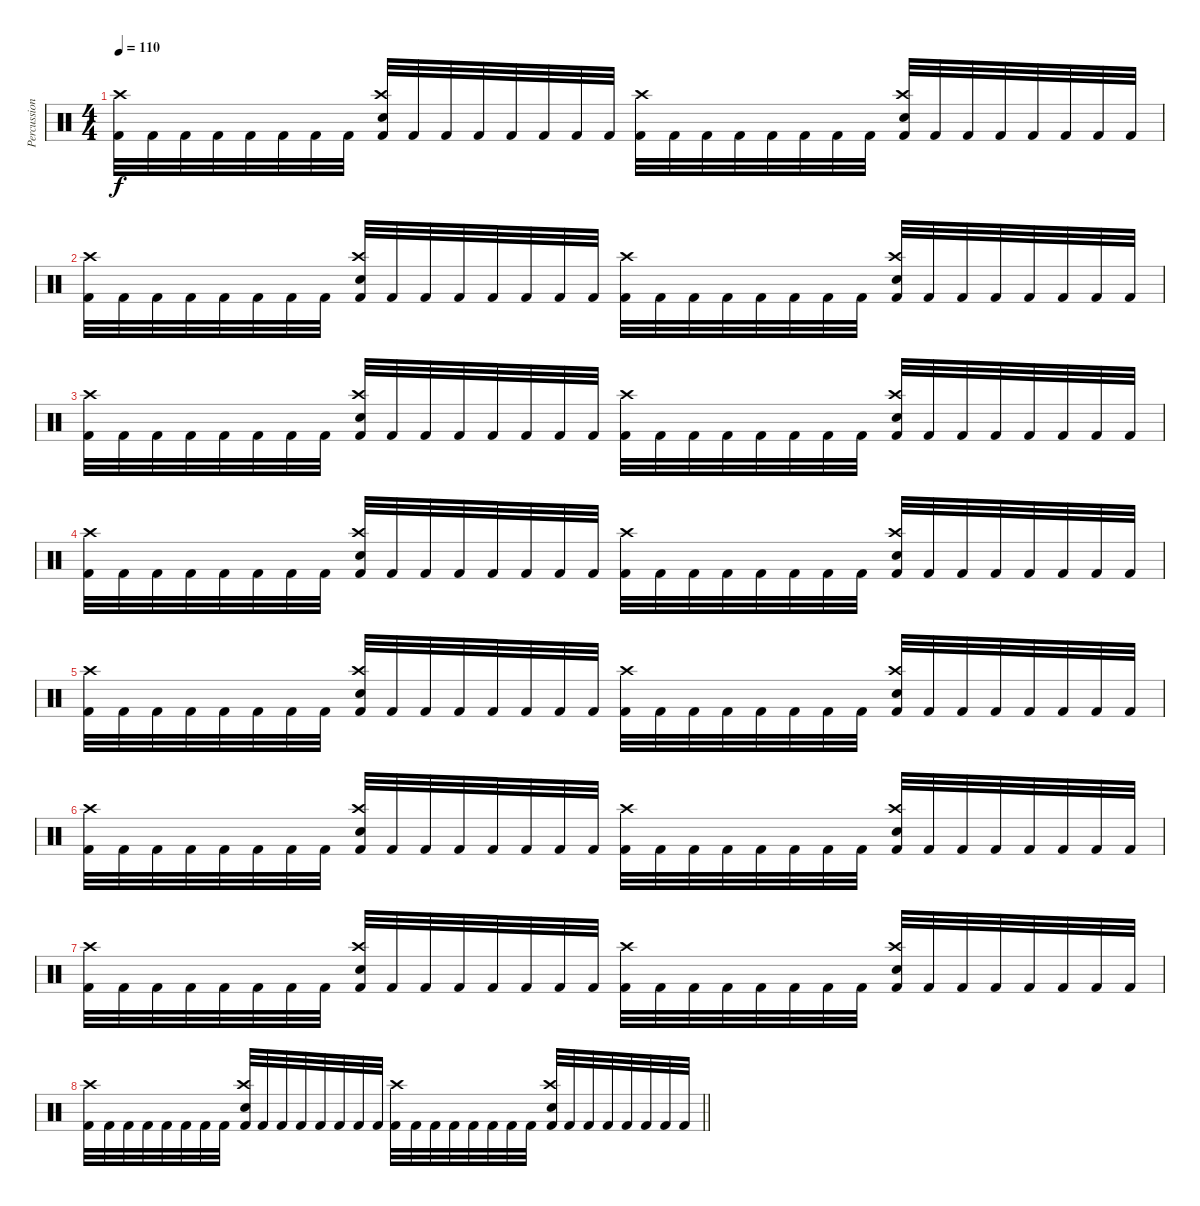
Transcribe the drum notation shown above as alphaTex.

\track ("Percussions" "Percussion") {instrument percussion}
\staff {score}
\articulation defaults
\ts (4 4)
\tempo 110
\clef neutral
\ks c
("Kick (hit) 2" "Crash high (hit)").32{dy f} "Kick (hit) 2".32 "Kick (hit) 2".32 "Kick (hit) 2".32 "Kick (hit) 2".32 "Kick (hit) 2".32 "Kick (hit) 2".32 "Kick (hit) 2".32 ("Kick (hit) 2" "Electric Snare (hit)" "Crash high (hit)").32 "Kick (hit) 2".32 "Kick (hit) 2".32 "Kick (hit) 2".32 "Kick (hit) 2".32 "Kick (hit) 2".32 "Kick (hit) 2".32 "Kick (hit) 2".32 ("Kick (hit) 2" "Crash high (hit)").32 "Kick (hit) 2".32 "Kick (hit) 2".32 "Kick (hit) 2".32 "Kick (hit) 2".32 "Kick (hit) 2".32 "Kick (hit) 2".32 "Kick (hit) 2".32 ("Kick (hit) 2" "Electric Snare (hit)" "Crash high (hit)").32 "Kick (hit) 2".32 "Kick (hit) 2".32 "Kick (hit) 2".32 "Kick (hit) 2".32 "Kick (hit) 2".32 "Kick (hit) 2".32 "Kick (hit) 2".32 |
("Kick (hit) 2" "Crash high (hit)").32 "Kick (hit) 2".32 "Kick (hit) 2".32 "Kick (hit) 2".32 "Kick (hit) 2".32 "Kick (hit) 2".32 "Kick (hit) 2".32 "Kick (hit) 2".32 ("Kick (hit) 2" "Electric Snare (hit)" "Crash high (hit)").32 "Kick (hit) 2".32 "Kick (hit) 2".32 "Kick (hit) 2".32 "Kick (hit) 2".32 "Kick (hit) 2".32 "Kick (hit) 2".32 "Kick (hit) 2".32 ("Kick (hit) 2" "Crash high (hit)").32 "Kick (hit) 2".32 "Kick (hit) 2".32 "Kick (hit) 2".32 "Kick (hit) 2".32 "Kick (hit) 2".32 "Kick (hit) 2".32 "Kick (hit) 2".32 ("Kick (hit) 2" "Electric Snare (hit)" "Crash high (hit)").32 "Kick (hit) 2".32 "Kick (hit) 2".32 "Kick (hit) 2".32 "Kick (hit) 2".32 "Kick (hit) 2".32 "Kick (hit) 2".32 "Kick (hit) 2".32 |
("Kick (hit) 2" "Crash high (hit)").32 "Kick (hit) 2".32 "Kick (hit) 2".32 "Kick (hit) 2".32 "Kick (hit) 2".32 "Kick (hit) 2".32 "Kick (hit) 2".32 "Kick (hit) 2".32 ("Kick (hit) 2" "Electric Snare (hit)" "Crash high (hit)").32 "Kick (hit) 2".32 "Kick (hit) 2".32 "Kick (hit) 2".32 "Kick (hit) 2".32 "Kick (hit) 2".32 "Kick (hit) 2".32 "Kick (hit) 2".32 ("Kick (hit) 2" "Crash high (hit)").32 "Kick (hit) 2".32 "Kick (hit) 2".32 "Kick (hit) 2".32 "Kick (hit) 2".32 "Kick (hit) 2".32 "Kick (hit) 2".32 "Kick (hit) 2".32 ("Kick (hit) 2" "Electric Snare (hit)" "Crash high (hit)").32 "Kick (hit) 2".32 "Kick (hit) 2".32 "Kick (hit) 2".32 "Kick (hit) 2".32 "Kick (hit) 2".32 "Kick (hit) 2".32 "Kick (hit) 2".32 |
("Kick (hit) 2" "Crash high (hit)").32 "Kick (hit) 2".32 "Kick (hit) 2".32 "Kick (hit) 2".32 "Kick (hit) 2".32 "Kick (hit) 2".32 "Kick (hit) 2".32 "Kick (hit) 2".32 ("Kick (hit) 2" "Electric Snare (hit)" "Crash high (hit)").32 "Kick (hit) 2".32 "Kick (hit) 2".32 "Kick (hit) 2".32 "Kick (hit) 2".32 "Kick (hit) 2".32 "Kick (hit) 2".32 "Kick (hit) 2".32 ("Kick (hit) 2" "Crash high (hit)").32 "Kick (hit) 2".32 "Kick (hit) 2".32 "Kick (hit) 2".32 "Kick (hit) 2".32 "Kick (hit) 2".32 "Kick (hit) 2".32 "Kick (hit) 2".32 ("Kick (hit) 2" "Electric Snare (hit)" "Crash high (hit)").32 "Kick (hit) 2".32 "Kick (hit) 2".32 "Kick (hit) 2".32 "Kick (hit) 2".32 "Kick (hit) 2".32 "Kick (hit) 2".32 "Kick (hit) 2".32 |
("Kick (hit) 2" "Crash high (hit)").32 "Kick (hit) 2".32 "Kick (hit) 2".32 "Kick (hit) 2".32 "Kick (hit) 2".32 "Kick (hit) 2".32 "Kick (hit) 2".32 "Kick (hit) 2".32 ("Kick (hit) 2" "Electric Snare (hit)" "Crash high (hit)").32 "Kick (hit) 2".32 "Kick (hit) 2".32 "Kick (hit) 2".32 "Kick (hit) 2".32 "Kick (hit) 2".32 "Kick (hit) 2".32 "Kick (hit) 2".32 ("Kick (hit) 2" "Crash high (hit)").32 "Kick (hit) 2".32 "Kick (hit) 2".32 "Kick (hit) 2".32 "Kick (hit) 2".32 "Kick (hit) 2".32 "Kick (hit) 2".32 "Kick (hit) 2".32 ("Kick (hit) 2" "Electric Snare (hit)" "Crash high (hit)").32 "Kick (hit) 2".32 "Kick (hit) 2".32 "Kick (hit) 2".32 "Kick (hit) 2".32 "Kick (hit) 2".32 "Kick (hit) 2".32 "Kick (hit) 2".32 |
("Kick (hit) 2" "Crash high (hit)").32 "Kick (hit) 2".32 "Kick (hit) 2".32 "Kick (hit) 2".32 "Kick (hit) 2".32 "Kick (hit) 2".32 "Kick (hit) 2".32 "Kick (hit) 2".32 ("Kick (hit) 2" "Electric Snare (hit)" "Crash high (hit)").32 "Kick (hit) 2".32 "Kick (hit) 2".32 "Kick (hit) 2".32 "Kick (hit) 2".32 "Kick (hit) 2".32 "Kick (hit) 2".32 "Kick (hit) 2".32 ("Kick (hit) 2" "Crash high (hit)").32 "Kick (hit) 2".32 "Kick (hit) 2".32 "Kick (hit) 2".32 "Kick (hit) 2".32 "Kick (hit) 2".32 "Kick (hit) 2".32 "Kick (hit) 2".32 ("Kick (hit) 2" "Electric Snare (hit)" "Crash high (hit)").32 "Kick (hit) 2".32 "Kick (hit) 2".32 "Kick (hit) 2".32 "Kick (hit) 2".32 "Kick (hit) 2".32 "Kick (hit) 2".32 "Kick (hit) 2".32 |
("Kick (hit) 2" "Crash high (hit)").32 "Kick (hit) 2".32 "Kick (hit) 2".32 "Kick (hit) 2".32 "Kick (hit) 2".32 "Kick (hit) 2".32 "Kick (hit) 2".32 "Kick (hit) 2".32 ("Kick (hit) 2" "Electric Snare (hit)" "Crash high (hit)").32 "Kick (hit) 2".32 "Kick (hit) 2".32 "Kick (hit) 2".32 "Kick (hit) 2".32 "Kick (hit) 2".32 "Kick (hit) 2".32 "Kick (hit) 2".32 ("Kick (hit) 2" "Crash high (hit)").32 "Kick (hit) 2".32 "Kick (hit) 2".32 "Kick (hit) 2".32 "Kick (hit) 2".32 "Kick (hit) 2".32 "Kick (hit) 2".32 "Kick (hit) 2".32 ("Kick (hit) 2" "Electric Snare (hit)" "Crash high (hit)").32 "Kick (hit) 2".32 "Kick (hit) 2".32 "Kick (hit) 2".32 "Kick (hit) 2".32 "Kick (hit) 2".32 "Kick (hit) 2".32 "Kick (hit) 2".32 |
\barLineRight lightlight
("Kick (hit) 2" "Crash high (hit)").32 "Kick (hit) 2".32 "Kick (hit) 2".32 "Kick (hit) 2".32 "Kick (hit) 2".32 "Kick (hit) 2".32 "Kick (hit) 2".32 "Kick (hit) 2".32 ("Kick (hit) 2" "Electric Snare (hit)" "Crash high (hit)").32 "Kick (hit) 2".32 "Kick (hit) 2".32 "Kick (hit) 2".32 "Kick (hit) 2".32 "Kick (hit) 2".32 "Kick (hit) 2".32 "Kick (hit) 2".32 ("Kick (hit) 2" "Crash high (hit)").32 "Kick (hit) 2".32 "Kick (hit) 2".32 "Kick (hit) 2".32 "Kick (hit) 2".32 "Kick (hit) 2".32 "Kick (hit) 2".32 "Kick (hit) 2".32 ("Kick (hit) 2" "Electric Snare (hit)" "Crash high (hit)").32 "Kick (hit) 2".32 "Kick (hit) 2".32 "Kick (hit) 2".32 "Kick (hit) 2".32 "Kick (hit) 2".32 "Kick (hit) 2".32 "Kick (hit) 2".32
